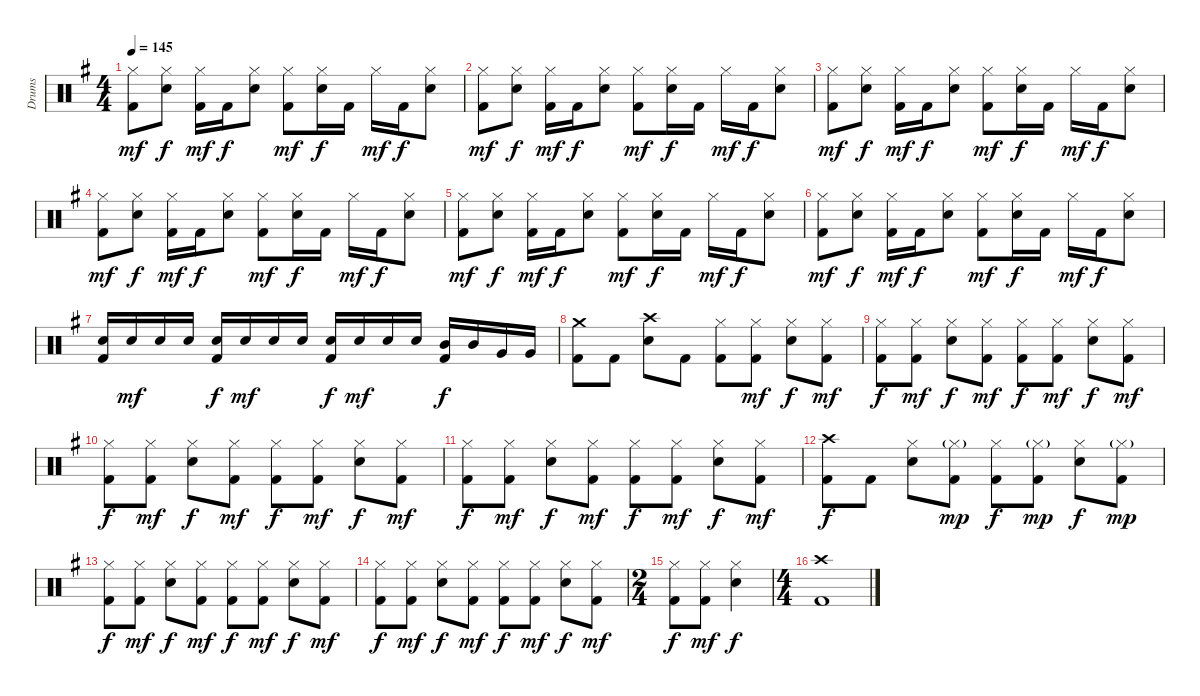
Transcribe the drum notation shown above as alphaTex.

\track ("Drums" "Drums") {instrument percussion}
\staff {score}
\articulation defaults
\ts (4 4)
\tempo 145
\clef neutral
\ks eminor
("Hi-Hat (closed)" "Kick (hit) 2").8{dy mf} ("Hi-Hat (closed)" "Electric Snare (hit)").8{dy f} ("Hi-Hat (closed)" "Kick (hit) 2").16{dy mf} "Kick (hit) 2".16{dy f} ("Hi-Hat (closed)" "Electric Snare (hit)").8 ("Hi-Hat (closed)" "Kick (hit) 2").8{dy mf} ("Hi-Hat (closed)" "Electric Snare (hit)").16{dy f} "Kick (hit) 2".16 "Hi-Hat (closed)".16{dy mf} "Kick (hit) 2".16{dy f} ("Hi-Hat (closed)" "Electric Snare (hit)").8 |
("Hi-Hat (closed)" "Kick (hit) 2").8{dy mf} ("Hi-Hat (closed)" "Electric Snare (hit)").8{dy f} ("Hi-Hat (closed)" "Kick (hit) 2").16{dy mf} "Kick (hit) 2".16{dy f} ("Hi-Hat (closed)" "Electric Snare (hit)").8 ("Hi-Hat (closed)" "Kick (hit) 2").8{dy mf} ("Hi-Hat (closed)" "Electric Snare (hit)").16{dy f} "Kick (hit) 2".16 "Hi-Hat (closed)".16{dy mf} "Kick (hit) 2".16{dy f} ("Hi-Hat (closed)" "Electric Snare (hit)").8 |
("Hi-Hat (closed)" "Kick (hit) 2").8{dy mf} ("Hi-Hat (closed)" "Electric Snare (hit)").8{dy f} ("Hi-Hat (closed)" "Kick (hit) 2").16{dy mf} "Kick (hit) 2".16{dy f} ("Hi-Hat (closed)" "Electric Snare (hit)").8 ("Hi-Hat (closed)" "Kick (hit) 2").8{dy mf} ("Hi-Hat (closed)" "Electric Snare (hit)").16{dy f} "Kick (hit) 2".16 "Hi-Hat (closed)".16{dy mf} "Kick (hit) 2".16{dy f} ("Hi-Hat (closed)" "Electric Snare (hit)").8 |
("Hi-Hat (closed)" "Kick (hit) 2").8{dy mf} ("Hi-Hat (closed)" "Electric Snare (hit)").8{dy f} ("Hi-Hat (closed)" "Kick (hit) 2").16{dy mf} "Kick (hit) 2".16{dy f} ("Hi-Hat (closed)" "Electric Snare (hit)").8 ("Hi-Hat (closed)" "Kick (hit) 2").8{dy mf} ("Hi-Hat (closed)" "Electric Snare (hit)").16{dy f} "Kick (hit) 2".16 "Hi-Hat (closed)".16{dy mf} "Kick (hit) 2".16{dy f} ("Hi-Hat (closed)" "Electric Snare (hit)").8 |
("Hi-Hat (closed)" "Kick (hit) 2").8{dy mf} ("Hi-Hat (closed)" "Electric Snare (hit)").8{dy f} ("Hi-Hat (closed)" "Kick (hit) 2").16{dy mf} "Kick (hit) 2".16{dy f} ("Hi-Hat (closed)" "Electric Snare (hit)").8 ("Hi-Hat (closed)" "Kick (hit) 2").8{dy mf} ("Hi-Hat (closed)" "Electric Snare (hit)").16{dy f} "Kick (hit) 2".16 "Hi-Hat (closed)".16{dy mf} "Kick (hit) 2".16{dy f} ("Hi-Hat (closed)" "Electric Snare (hit)").8 |
("Hi-Hat (closed)" "Kick (hit) 2").8{dy mf} ("Hi-Hat (closed)" "Electric Snare (hit)").8{dy f} ("Hi-Hat (closed)" "Kick (hit) 2").16{dy mf} "Kick (hit) 2".16{dy f} ("Hi-Hat (closed)" "Electric Snare (hit)").8 ("Hi-Hat (closed)" "Kick (hit) 2").8{dy mf} ("Hi-Hat (closed)" "Electric Snare (hit)").16{dy f} "Kick (hit) 2".16 "Hi-Hat (closed)".16{dy mf} "Kick (hit) 2".16{dy f} ("Hi-Hat (closed)" "Electric Snare (hit)").8 |
("Electric Snare (hit)" "Kick (hit) 2").16 "Electric Snare (hit)".16{dy mf} "Electric Snare (hit)".16 "Electric Snare (hit)".16 ("Electric Snare (hit)" "Kick (hit) 2").16{dy f} "Electric Snare (hit)".16{dy mf} "Electric Snare (hit)".16 "Electric Snare (hit)".16 ("Electric Snare (hit)" "Kick (hit) 2").16{dy f} "Electric Snare (hit)".16{dy mf} "Electric Snare (hit)".16 "Electric Snare (hit)".16 ("Mid Tom (hit)" "Kick (hit) 2").16{dy f} "Mid Tom (hit)".16 "Very Low Tom (hit)".16 "Very Low Tom (hit)".16 |
("Crash medium (hit)" "Kick (hit) 2").8 "Kick (hit) 2".8 ("Crash high (hit)" "Electric Snare (hit)").8 "Kick (hit) 2".8 ("Hi-Hat (closed)" "Kick (hit) 2").8 ("Hi-Hat (closed)" "Kick (hit) 2").8{dy mf} ("Hi-Hat (closed)" "Electric Snare (hit)").8{dy f} ("Hi-Hat (closed)" "Kick (hit) 2").8{dy mf} |
("Hi-Hat (closed)" "Kick (hit) 2").8{dy f} ("Hi-Hat (closed)" "Kick (hit) 2").8{dy mf} ("Hi-Hat (closed)" "Electric Snare (hit)").8{dy f} ("Hi-Hat (closed)" "Kick (hit) 2").8{dy mf} ("Hi-Hat (closed)" "Kick (hit) 2").8{dy f} ("Hi-Hat (closed)" "Kick (hit) 2").8{dy mf} ("Hi-Hat (closed)" "Electric Snare (hit)").8{dy f} ("Hi-Hat (closed)" "Kick (hit) 2").8{dy mf} |
("Hi-Hat (closed)" "Kick (hit) 2").8{dy f} ("Hi-Hat (closed)" "Kick (hit) 2").8{dy mf} ("Hi-Hat (closed)" "Electric Snare (hit)").8{dy f} ("Hi-Hat (closed)" "Kick (hit) 2").8{dy mf} ("Hi-Hat (closed)" "Kick (hit) 2").8{dy f} ("Hi-Hat (closed)" "Kick (hit) 2").8{dy mf} ("Hi-Hat (closed)" "Electric Snare (hit)").8{dy f} ("Hi-Hat (closed)" "Kick (hit) 2").8{dy mf} |
("Hi-Hat (closed)" "Kick (hit) 2").8{dy f} ("Hi-Hat (closed)" "Kick (hit) 2").8{dy mf} ("Hi-Hat (closed)" "Electric Snare (hit)").8{dy f} ("Hi-Hat (closed)" "Kick (hit) 2").8{dy mf} ("Hi-Hat (closed)" "Kick (hit) 2").8{dy f} ("Hi-Hat (closed)" "Kick (hit) 2").8{dy mf} ("Hi-Hat (closed)" "Electric Snare (hit)").8{dy f} ("Hi-Hat (closed)" "Kick (hit) 2").8{dy mf} |
("Crash high (hit)" "Kick (hit) 2").8{dy f} "Kick (hit) 2".8 ("Hi-Hat (closed)" "Electric Snare (hit)").8 ("Hi-Hat (closed)"{g} "Kick (hit) 2").8{dy mp} ("Hi-Hat (closed)" "Kick (hit) 2").8{dy f} ("Hi-Hat (closed)"{g} "Kick (hit) 2").8{dy mp} ("Hi-Hat (closed)" "Electric Snare (hit)").8{dy f} ("Hi-Hat (closed)"{g} "Kick (hit) 2").8{dy mp} |
("Hi-Hat (closed)" "Kick (hit) 2").8{dy f} ("Hi-Hat (closed)" "Kick (hit) 2").8{dy mf} ("Hi-Hat (closed)" "Electric Snare (hit)").8{dy f} ("Hi-Hat (closed)" "Kick (hit) 2").8{dy mf} ("Hi-Hat (closed)" "Kick (hit) 2").8{dy f} ("Hi-Hat (closed)" "Kick (hit) 2").8{dy mf} ("Hi-Hat (closed)" "Electric Snare (hit)").8{dy f} ("Hi-Hat (closed)" "Kick (hit) 2").8{dy mf} |
("Hi-Hat (closed)" "Kick (hit) 2").8{dy f} ("Hi-Hat (closed)" "Kick (hit) 2").8{dy mf} ("Hi-Hat (closed)" "Electric Snare (hit)").8{dy f} ("Hi-Hat (closed)" "Kick (hit) 2").8{dy mf} ("Hi-Hat (closed)" "Kick (hit) 2").8{dy f} ("Hi-Hat (closed)" "Kick (hit) 2").8{dy mf} ("Hi-Hat (closed)" "Electric Snare (hit)").8{dy f} ("Hi-Hat (closed)" "Kick (hit) 2").8{dy mf} |
\ts (2 4)
("Hi-Hat (closed)" "Kick (hit) 2").8{dy f} ("Hi-Hat (closed)" "Kick (hit) 2").8{dy mf} ("Hi-Hat (closed)" "Electric Snare (hit)").4{dy f} |
\ts (4 4)
("Crash high (hit)" "Kick (hit) 2").1
